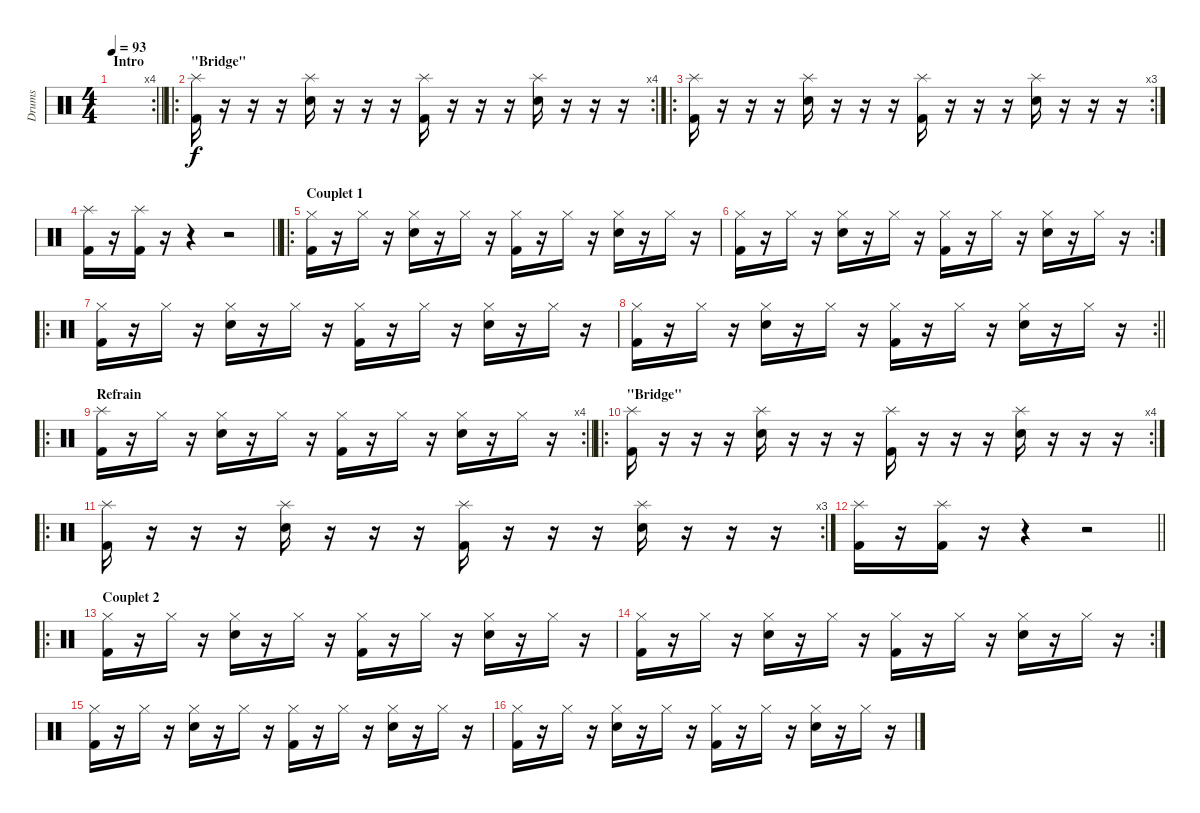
\track ("Drums" "Drums") {instrument percussion}
\staff {score}
\articulation defaults
\rc 4
\ts (4 4)
\section ("" "Intro")
\tempo 93
\clef neutral
\barLineRight lightlight
\ks c
|
\ro
\rc 4
\section ("" "\"Bridge\"")
("Splash (hit)" "Kick (hit) 2").16 r.16 r.16 r.16 ("Splash (hit)" "Electric Snare (hit)").16 r.16 r.16 r.16 ("Splash (hit)" "Kick (hit) 2").16 r.16 r.16 r.16 ("Splash (hit)" "Electric Snare (hit)").16 r.16 r.16 r.16 |
\ro
\rc 3
("Splash (hit)" "Kick (hit) 2").16 r.16 r.16 r.16 ("Splash (hit)" "Electric Snare (hit)").16 r.16 r.16 r.16 ("Splash (hit)" "Kick (hit) 2").16 r.16 r.16 r.16 ("Splash (hit)" "Electric Snare (hit)").16 r.16 r.16 r.16 |
\barLineRight lightlight
("Splash (hit)" "Kick (hit) 2").16 r.16 ("Splash (hit)" "Kick (hit) 2").16 r.16 r.4 r.2 |
\ro
\section ("" "Couplet 1")
("Hi-Hat (closed)" "Kick (hit) 2").16 r.16 "Hi-Hat (closed)".16 r.16 ("Hi-Hat (closed)" "Electric Snare (hit)").16 r.16 "Hi-Hat (closed)".16 r.16 ("Hi-Hat (closed)" "Kick (hit) 2").16 r.16 "Hi-Hat (closed)".16 r.16 ("Hi-Hat (closed)" "Electric Snare (hit)").16 r.16 "Hi-Hat (closed)".16 r.16 |
\rc 2
("Hi-Hat (closed)" "Kick (hit) 2").16 r.16 "Hi-Hat (closed)".16 r.16 ("Hi-Hat (closed)" "Electric Snare (hit)").16 r.16 "Hi-Hat (closed)".16 r.16 ("Hi-Hat (closed)" "Kick (hit) 2").16 r.16 "Hi-Hat (closed)".16 r.16 ("Hi-Hat (closed)" "Electric Snare (hit)").16 r.16 "Hi-Hat (closed)".16 r.16 |
\ro
("Hi-Hat (closed)" "Kick (hit) 2").16 r.16 "Hi-Hat (closed)".16 r.16 ("Hi-Hat (closed)" "Electric Snare (hit)").16 r.16 "Hi-Hat (closed)".16 r.16 ("Hi-Hat (closed)" "Kick (hit) 2").16 r.16 "Hi-Hat (closed)".16 r.16 ("Hi-Hat (closed)" "Electric Snare (hit)").16 r.16 "Hi-Hat (closed)".16 r.16 |
\rc 2
\barLineRight lightlight
("Hi-Hat (closed)" "Kick (hit) 2").16 r.16 "Hi-Hat (closed)".16 r.16 ("Hi-Hat (closed)" "Electric Snare (hit)").16 r.16 "Hi-Hat (closed)".16 r.16 ("Hi-Hat (closed)" "Kick (hit) 2").16 r.16 "Hi-Hat (closed)".16 r.16 ("Hi-Hat (closed)" "Electric Snare (hit)").16 r.16 "Hi-Hat (closed)".16 r.16 |
\ro
\rc 4
\section ("" "Refrain")
\barLineRight lightlight
("Splash (hit)" "Kick (hit) 2").16 r.16 "Hi-Hat (closed)".16 r.16 ("Hi-Hat (closed)" "Electric Snare (hit)").16 r.16 "Hi-Hat (closed)".16 r.16 ("Hi-Hat (closed)" "Kick (hit) 2").16 r.16 "Hi-Hat (closed)".16 r.16 ("Hi-Hat (closed)" "Electric Snare (hit)").16 r.16 "Hi-Hat (closed)".16 r.16 |
\ro
\rc 4
\section ("" "\"Bridge\"")
("Splash (hit)" "Kick (hit) 2").16 r.16 r.16 r.16 ("Splash (hit)" "Electric Snare (hit)").16 r.16 r.16 r.16 ("Splash (hit)" "Kick (hit) 2").16 r.16 r.16 r.16 ("Splash (hit)" "Electric Snare (hit)").16 r.16 r.16 r.16 |
\ro
\rc 3
("Splash (hit)" "Kick (hit) 2").16 r.16 r.16 r.16 ("Splash (hit)" "Electric Snare (hit)").16 r.16 r.16 r.16 ("Splash (hit)" "Kick (hit) 2").16 r.16 r.16 r.16 ("Splash (hit)" "Electric Snare (hit)").16 r.16 r.16 r.16 |
\barLineRight lightlight
("Splash (hit)" "Kick (hit) 2").16 r.16 ("Splash (hit)" "Kick (hit) 2").16 r.16 r.4 r.2 |
\ro
\section ("" "Couplet 2")
("Hi-Hat (closed)" "Kick (hit) 2").16 r.16 "Hi-Hat (closed)".16 r.16 ("Hi-Hat (closed)" "Electric Snare (hit)").16 r.16 "Hi-Hat (closed)".16 r.16 ("Hi-Hat (closed)" "Kick (hit) 2").16 r.16 "Hi-Hat (closed)".16 r.16 ("Hi-Hat (closed)" "Electric Snare (hit)").16 r.16 "Hi-Hat (closed)".16 r.16 |
\rc 2
("Hi-Hat (closed)" "Kick (hit) 2").16 r.16 "Hi-Hat (closed)".16 r.16 ("Hi-Hat (closed)" "Electric Snare (hit)").16 r.16 "Hi-Hat (closed)".16 r.16 ("Hi-Hat (closed)" "Kick (hit) 2").16 r.16 "Hi-Hat (closed)".16 r.16 ("Hi-Hat (closed)" "Electric Snare (hit)").16 r.16 "Hi-Hat (closed)".16 r.16 |
("Hi-Hat (closed)" "Kick (hit) 2").16 r.16 "Hi-Hat (closed)".16 r.16 ("Hi-Hat (closed)" "Electric Snare (hit)").16 r.16 "Hi-Hat (closed)".16 r.16 ("Hi-Hat (closed)" "Kick (hit) 2").16 r.16 "Hi-Hat (closed)".16 r.16 ("Hi-Hat (closed)" "Electric Snare (hit)").16 r.16 "Hi-Hat (closed)".16 r.16 |
("Hi-Hat (closed)" "Kick (hit) 2").16 r.16 "Hi-Hat (closed)".16 r.16 ("Hi-Hat (closed)" "Electric Snare (hit)").16 r.16 "Hi-Hat (closed)".16 r.16 ("Hi-Hat (closed)" "Kick (hit) 2").16 r.16 "Hi-Hat (closed)".16 r.16 ("Hi-Hat (closed)" "Electric Snare (hit)").16 r.16 "Hi-Hat (closed)".16 r.16
